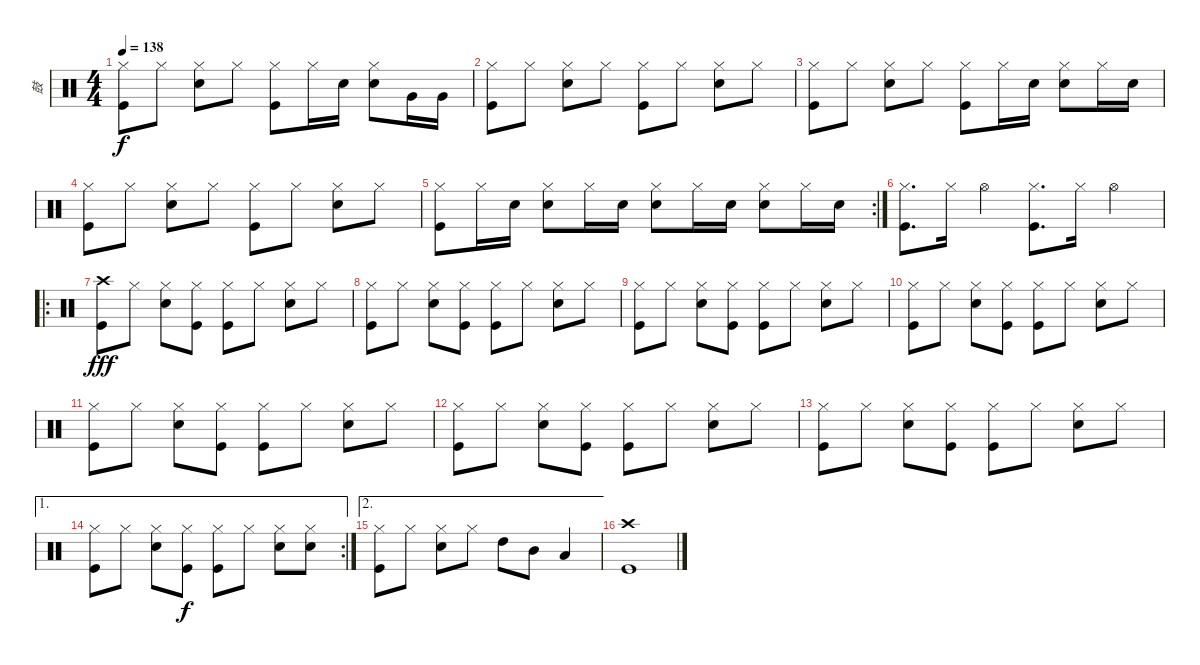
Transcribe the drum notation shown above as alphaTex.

\track ("鼓" "鼓") {instrument percussion}
\staff {score}
\articulation defaults
\ts (4 4)
\tempo 138
\clef neutral
\ks c
("Hi-Hat (closed)" "Kick (hit)").8{dy f} "Hi-Hat (closed)".8 ("Hi-Hat (closed)" "Snare (hit) 2").8 "Hi-Hat (closed)".8 ("Hi-Hat (closed)" "Kick (hit)").8 "Hi-Hat (closed)".16 "Snare (hit) 2".16 ("Hi-Hat (closed)" "Snare (hit) 2").8 "Very Low Tom (hit)".16 "Very Low Tom (hit)".16 |
("Hi-Hat (closed)" "Kick (hit)").8 "Hi-Hat (closed)".8 ("Hi-Hat (closed)" "Snare (hit) 2").8 "Hi-Hat (closed)".8 ("Hi-Hat (closed)" "Kick (hit)").8 "Hi-Hat (closed)".8 ("Hi-Hat (closed)" "Snare (hit) 2").8 "Hi-Hat (closed)".8 |
("Hi-Hat (closed)" "Kick (hit)").8 "Hi-Hat (closed)".8 ("Hi-Hat (closed)" "Snare (hit) 2").8 "Hi-Hat (closed)".8 ("Hi-Hat (closed)" "Kick (hit)").8 "Hi-Hat (closed)".16 "Snare (hit) 2".16 ("Hi-Hat (closed)" "Snare (hit) 2").8 "Hi-Hat (closed)".16 "Snare (hit) 2".16 |
("Hi-Hat (closed)" "Kick (hit)").8 "Hi-Hat (closed)".8 ("Hi-Hat (closed)" "Snare (hit) 2").8 "Hi-Hat (closed)".8 ("Hi-Hat (closed)" "Kick (hit)").8 "Hi-Hat (closed)".8 ("Hi-Hat (closed)" "Snare (hit) 2").8 "Hi-Hat (closed)".8 |
\rc 2
("Hi-Hat (closed)" "Kick (hit)").8 "Hi-Hat (closed)".16 "Snare (hit) 2".16 ("Hi-Hat (closed)" "Snare (hit) 2").8 "Hi-Hat (closed)".16 "Snare (hit) 2".16 ("Hi-Hat (closed)" "Snare (hit) 2").8 "Hi-Hat (closed)".16 "Snare (hit) 2".16 ("Hi-Hat (closed)" "Snare (hit) 2").8 "Hi-Hat (closed)".16 "Snare (hit) 2".16 |
("Hi-Hat (closed)" "Kick (hit)").8{d} "Hi-Hat (closed)".16 "Hi-Hat (open)".4 ("Hi-Hat (closed)" "Kick (hit)").8{d} "Hi-Hat (closed)".16 "Hi-Hat (open)".4 |
\ro
("Crash high (hit)" "Kick (hit)").8{dy fff} "Hi-Hat (closed)".8 ("Hi-Hat (closed)" "Snare (hit) 2").8 ("Hi-Hat (closed)" "Kick (hit)").8 ("Hi-Hat (closed)" "Kick (hit)").8 "Hi-Hat (closed)".8 ("Hi-Hat (closed)" "Snare (hit) 2").8 "Hi-Hat (closed)".8 |
("Hi-Hat (closed)" "Kick (hit)").8 "Hi-Hat (closed)".8 ("Hi-Hat (closed)" "Snare (hit) 2").8 ("Hi-Hat (closed)" "Kick (hit)").8 ("Hi-Hat (closed)" "Kick (hit)").8 "Hi-Hat (closed)".8 ("Hi-Hat (closed)" "Snare (hit) 2").8 "Hi-Hat (closed)".8 |
("Hi-Hat (closed)" "Kick (hit)").8 "Hi-Hat (closed)".8 ("Hi-Hat (closed)" "Snare (hit) 2").8 ("Hi-Hat (closed)" "Kick (hit)").8 ("Hi-Hat (closed)" "Kick (hit)").8 "Hi-Hat (closed)".8 ("Hi-Hat (closed)" "Snare (hit) 2").8 "Hi-Hat (closed)".8 |
("Hi-Hat (closed)" "Kick (hit)").8 "Hi-Hat (closed)".8 ("Hi-Hat (closed)" "Snare (hit) 2").8 ("Hi-Hat (closed)" "Kick (hit)").8 ("Hi-Hat (closed)" "Kick (hit)").8 "Hi-Hat (closed)".8 ("Hi-Hat (closed)" "Snare (hit) 2").8 "Hi-Hat (closed)".8 |
("Hi-Hat (closed)" "Kick (hit)").8 "Hi-Hat (closed)".8 ("Hi-Hat (closed)" "Snare (hit) 2").8 ("Hi-Hat (closed)" "Kick (hit)").8 ("Hi-Hat (closed)" "Kick (hit)").8 "Hi-Hat (closed)".8 ("Hi-Hat (closed)" "Snare (hit) 2").8 "Hi-Hat (closed)".8 |
("Hi-Hat (closed)" "Kick (hit)").8 "Hi-Hat (closed)".8 ("Hi-Hat (closed)" "Snare (hit) 2").8 ("Hi-Hat (closed)" "Kick (hit)").8 ("Hi-Hat (closed)" "Kick (hit)").8 "Hi-Hat (closed)".8 ("Hi-Hat (closed)" "Snare (hit) 2").8 "Hi-Hat (closed)".8 |
("Hi-Hat (closed)" "Kick (hit)").8 "Hi-Hat (closed)".8 ("Hi-Hat (closed)" "Snare (hit) 2").8 ("Hi-Hat (closed)" "Kick (hit)").8 ("Hi-Hat (closed)" "Kick (hit)").8 "Hi-Hat (closed)".8 ("Hi-Hat (closed)" "Snare (hit) 2").8 "Hi-Hat (closed)".8 |
\ae 1
\rc 2
("Hi-Hat (closed)" "Kick (hit)").8 "Hi-Hat (closed)".8 ("Hi-Hat (closed)" "Snare (hit) 2").8 ("Hi-Hat (closed)" "Kick (hit)").8{dy f} ("Hi-Hat (closed)" "Kick (hit)").8 "Hi-Hat (closed)".8 ("Hi-Hat (closed)" "Snare (hit) 2").8 ("Hi-Hat (closed)" "Snare (hit) 2").8 |
\ae 2
("Hi-Hat (closed)" "Kick (hit)").8 "Hi-Hat (closed)".8 ("Hi-Hat (closed)" "Snare (hit) 2").8 "Hi-Hat (closed)".8 "High Tom (hit)".8 "Mid Tom (hit)".8 "Low Tom (hit)".4 |
("Crash high (hit)" "Kick (hit)").1
